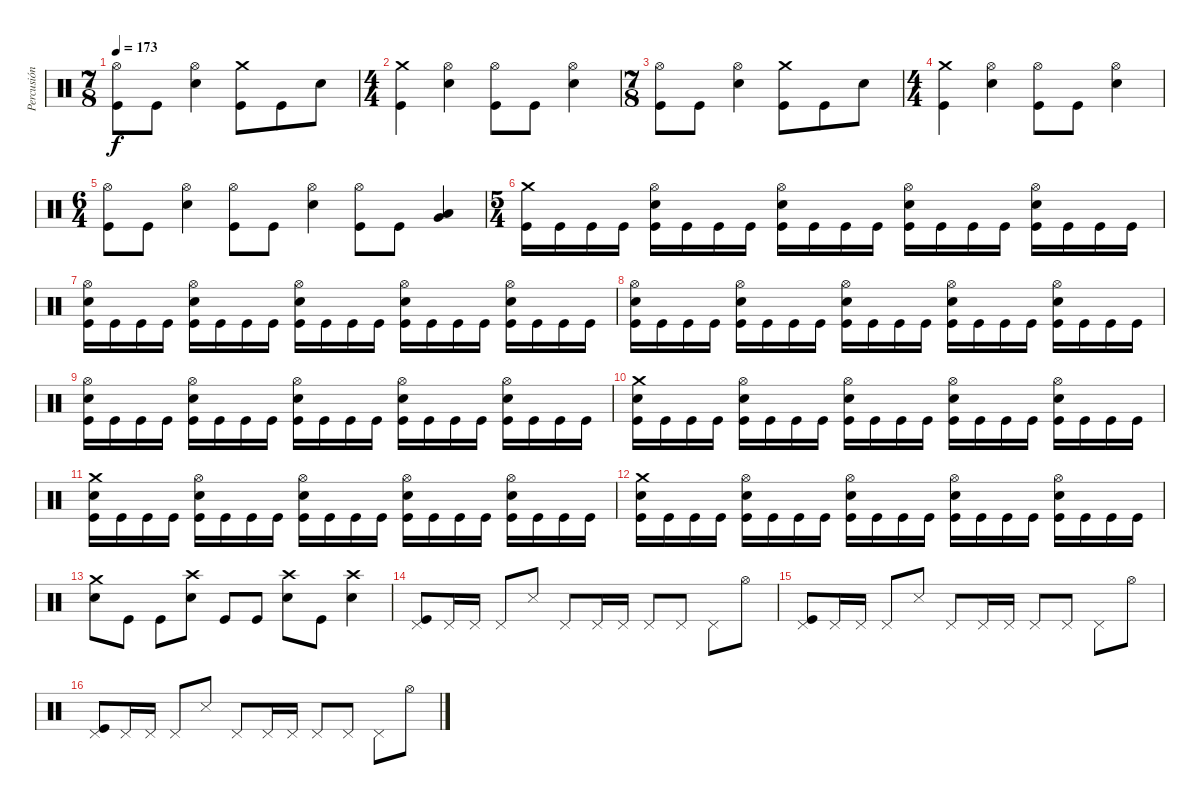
\track ("Percusión" "Percusión") {instrument percussion}
\staff {score}
\articulation defaults
\ts (7 8)
\tempo 173
\clef neutral
\ks c
("Hi-Hat (open)" "Kick (hit)").8{dy f} "Kick (hit)".8 ("Hi-Hat (open)" "Electric Snare (hit)").4 ("Crash medium (hit)" "Kick (hit)").8 "Kick (hit)".8 "Electric Snare (hit)".8 |
\ts (4 4)
("Crash medium (hit)" "Kick (hit)").4 ("Hi-Hat (open)" "Electric Snare (hit)").4 ("Hi-Hat (open)" "Kick (hit)").8 "Kick (hit)".8 ("Hi-Hat (open)" "Electric Snare (hit)").4 |
\ts (7 8)
("Hi-Hat (open)" "Kick (hit)").8 "Kick (hit)".8 ("Hi-Hat (open)" "Electric Snare (hit)").4 ("Crash medium (hit)" "Kick (hit)").8 "Kick (hit)".8 "Electric Snare (hit)".8 |
\ts (4 4)
("Crash medium (hit)" "Kick (hit)").4 ("Hi-Hat (open)" "Electric Snare (hit)").4 ("Hi-Hat (open)" "Kick (hit)").8 "Kick (hit)".8 ("Hi-Hat (open)" "Electric Snare (hit)").4 |
\ts (6 4)
("Hi-Hat (open)" "Kick (hit)").8 "Kick (hit)".8 ("Hi-Hat (open)" "Electric Snare (hit)").4 ("Hi-Hat (open)" "Kick (hit)").8 "Kick (hit)".8 ("Hi-Hat (open)" "Electric Snare (hit)").4 ("Hi-Hat (open)" "Kick (hit)").8 "Kick (hit)".8 ("Very Low Tom (hit)" "Low Tom (hit)").4 |
\ts (5 4)
("Crash medium (hit)" "Kick (hit)").16 "Kick (hit)".16 "Kick (hit)".16 "Kick (hit)".16 ("Hi-Hat (open)" "Electric Snare (hit)" "Kick (hit)").16 "Kick (hit)".16 "Kick (hit)".16 "Kick (hit)".16 ("Hi-Hat (open)" "Electric Snare (hit)" "Kick (hit)").16 "Kick (hit)".16 "Kick (hit)".16 "Kick (hit)".16 ("Hi-Hat (open)" "Electric Snare (hit)" "Kick (hit)").16 "Kick (hit)".16 "Kick (hit)".16 "Kick (hit)".16 ("Hi-Hat (open)" "Electric Snare (hit)" "Kick (hit)").16 "Kick (hit)".16 "Kick (hit)".16 "Kick (hit)".16 |
("Hi-Hat (open)" "Electric Snare (hit)" "Kick (hit)").16 "Kick (hit)".16 "Kick (hit)".16 "Kick (hit)".16 ("Hi-Hat (open)" "Electric Snare (hit)" "Kick (hit)").16 "Kick (hit)".16 "Kick (hit)".16 "Kick (hit)".16 ("Hi-Hat (open)" "Electric Snare (hit)" "Kick (hit)").16 "Kick (hit)".16 "Kick (hit)".16 "Kick (hit)".16 ("Hi-Hat (open)" "Electric Snare (hit)" "Kick (hit)").16 "Kick (hit)".16 "Kick (hit)".16 "Kick (hit)".16 ("Hi-Hat (open)" "Electric Snare (hit)" "Kick (hit)").16 "Kick (hit)".16 "Kick (hit)".16 "Kick (hit)".16 |
("Hi-Hat (open)" "Electric Snare (hit)" "Kick (hit)").16 "Kick (hit)".16 "Kick (hit)".16 "Kick (hit)".16 ("Hi-Hat (open)" "Electric Snare (hit)" "Kick (hit)").16 "Kick (hit)".16 "Kick (hit)".16 "Kick (hit)".16 ("Hi-Hat (open)" "Electric Snare (hit)" "Kick (hit)").16 "Kick (hit)".16 "Kick (hit)".16 "Kick (hit)".16 ("Hi-Hat (open)" "Electric Snare (hit)" "Kick (hit)").16 "Kick (hit)".16 "Kick (hit)".16 "Kick (hit)".16 ("Hi-Hat (open)" "Electric Snare (hit)" "Kick (hit)").16 "Kick (hit)".16 "Kick (hit)".16 "Kick (hit)".16 |
("Hi-Hat (open)" "Electric Snare (hit)" "Kick (hit)").16 "Kick (hit)".16 "Kick (hit)".16 "Kick (hit)".16 ("Hi-Hat (open)" "Electric Snare (hit)" "Kick (hit)").16 "Kick (hit)".16 "Kick (hit)".16 "Kick (hit)".16 ("Hi-Hat (open)" "Electric Snare (hit)" "Kick (hit)").16 "Kick (hit)".16 "Kick (hit)".16 "Kick (hit)".16 ("Hi-Hat (open)" "Electric Snare (hit)" "Kick (hit)").16 "Kick (hit)".16 "Kick (hit)".16 "Kick (hit)".16 ("Hi-Hat (open)" "Electric Snare (hit)" "Kick (hit)").16 "Kick (hit)".16 "Kick (hit)".16 "Kick (hit)".16 |
("Crash medium (hit)" "Electric Snare (hit)" "Kick (hit)").16 "Kick (hit)".16 "Kick (hit)".16 "Kick (hit)".16 ("Hi-Hat (open)" "Electric Snare (hit)" "Kick (hit)").16 "Kick (hit)".16 "Kick (hit)".16 "Kick (hit)".16 ("Hi-Hat (open)" "Electric Snare (hit)" "Kick (hit)").16 "Kick (hit)".16 "Kick (hit)".16 "Kick (hit)".16 ("Hi-Hat (open)" "Electric Snare (hit)" "Kick (hit)").16 "Kick (hit)".16 "Kick (hit)".16 "Kick (hit)".16 ("Hi-Hat (open)" "Electric Snare (hit)" "Kick (hit)").16 "Kick (hit)".16 "Kick (hit)".16 "Kick (hit)".16 |
("Crash medium (hit)" "Electric Snare (hit)" "Kick (hit)").16 "Kick (hit)".16 "Kick (hit)".16 "Kick (hit)".16 ("Hi-Hat (open)" "Electric Snare (hit)" "Kick (hit)").16 "Kick (hit)".16 "Kick (hit)".16 "Kick (hit)".16 ("Hi-Hat (open)" "Electric Snare (hit)" "Kick (hit)").16 "Kick (hit)".16 "Kick (hit)".16 "Kick (hit)".16 ("Hi-Hat (open)" "Electric Snare (hit)" "Kick (hit)").16 "Kick (hit)".16 "Kick (hit)".16 "Kick (hit)".16 ("Hi-Hat (open)" "Electric Snare (hit)" "Kick (hit)").16 "Kick (hit)".16 "Kick (hit)".16 "Kick (hit)".16 |
("Crash medium (hit)" "Electric Snare (hit)" "Kick (hit)").16 "Kick (hit)".16 "Kick (hit)".16 "Kick (hit)".16 ("Hi-Hat (open)" "Electric Snare (hit)" "Kick (hit)").16 "Kick (hit)".16 "Kick (hit)".16 "Kick (hit)".16 ("Hi-Hat (open)" "Electric Snare (hit)" "Kick (hit)").16 "Kick (hit)".16 "Kick (hit)".16 "Kick (hit)".16 ("Hi-Hat (open)" "Electric Snare (hit)" "Kick (hit)").16 "Kick (hit)".16 "Kick (hit)".16 "Kick (hit)".16 ("Hi-Hat (open)" "Electric Snare (hit)" "Kick (hit)").16 "Kick (hit)".16 "Kick (hit)".16 "Kick (hit)".16 |
("Crash medium (hit)" "Electric Snare (hit)").8 "Kick (hit)".8 "Kick (hit)".8 ("Crash high (hit)" "Electric Snare (hit)").8 "Kick (hit)".8 "Kick (hit)".8 ("Crash high (hit)" "Electric Snare (hit)").8 "Kick (hit)".8 ("Crash high (hit)" "Electric Snare (hit)").4 |
("Pedal Hi-Hat (hit)" "Kick (hit)").8 "Pedal Hi-Hat (hit)".16 "Pedal Hi-Hat (hit)".16 "Pedal Hi-Hat (hit)".8 "Metronome (hit)".8 "Pedal Hi-Hat (hit)".8 "Pedal Hi-Hat (hit)".16 "Pedal Hi-Hat (hit)".16 "Pedal Hi-Hat (hit)".8 "Pedal Hi-Hat (hit)".8 "Pedal Hi-Hat (hit)".8 "Hi-Hat (open)".8 |
("Pedal Hi-Hat (hit)" "Kick (hit)").8 "Pedal Hi-Hat (hit)".16 "Pedal Hi-Hat (hit)".16 "Pedal Hi-Hat (hit)".8 "Metronome (hit)".8 "Pedal Hi-Hat (hit)".8 "Pedal Hi-Hat (hit)".16 "Pedal Hi-Hat (hit)".16 "Pedal Hi-Hat (hit)".8 "Pedal Hi-Hat (hit)".8 "Pedal Hi-Hat (hit)".8 "Hi-Hat (open)".8 |
("Pedal Hi-Hat (hit)" "Kick (hit)").8 "Pedal Hi-Hat (hit)".16 "Pedal Hi-Hat (hit)".16 "Pedal Hi-Hat (hit)".8 "Metronome (hit)".8 "Pedal Hi-Hat (hit)".8 "Pedal Hi-Hat (hit)".16 "Pedal Hi-Hat (hit)".16 "Pedal Hi-Hat (hit)".8 "Pedal Hi-Hat (hit)".8 "Pedal Hi-Hat (hit)".8 "Hi-Hat (open)".8
